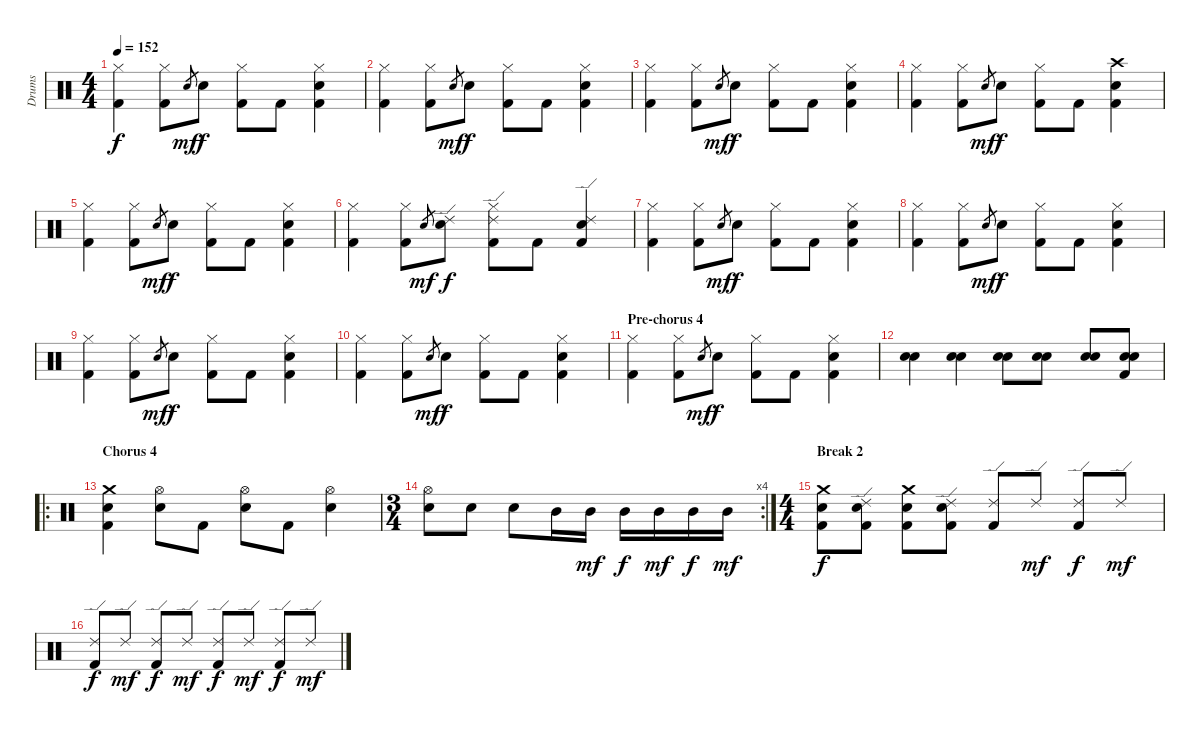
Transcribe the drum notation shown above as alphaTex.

\track ("Drums" "Drums") {instrument percussion}
\staff {score}
\articulation defaults
\ts (4 4)
\tempo 152
\clef neutral
\ks c
("Hi-Hat (closed)" "Kick (hit) 2").4{dy f} ("Hi-Hat (closed)" "Kick (hit) 2").8 "Electric Snare (hit)".8{gr dy mf} "Electric Snare (hit)".8{dy f} ("Hi-Hat (closed)" "Kick (hit) 2").8 "Kick (hit) 2".8 ("Hi-Hat (closed)" "Electric Snare (hit)" "Kick (hit) 2").4 |
("Hi-Hat (closed)" "Kick (hit) 2").4 ("Hi-Hat (closed)" "Kick (hit) 2").8 "Electric Snare (hit)".8{gr dy mf} "Electric Snare (hit)".8{dy f} ("Hi-Hat (closed)" "Kick (hit) 2").8 "Kick (hit) 2".8 ("Hi-Hat (closed)" "Electric Snare (hit)" "Kick (hit) 2").4 |
("Hi-Hat (closed)" "Kick (hit) 2").4 ("Hi-Hat (closed)" "Kick (hit) 2").8 "Electric Snare (hit)".8{gr dy mf} "Electric Snare (hit)".8{dy f} ("Hi-Hat (closed)" "Kick (hit) 2").8 "Kick (hit) 2".8 ("Hi-Hat (closed)" "Electric Snare (hit)" "Kick (hit) 2").4 |
("Hi-Hat (closed)" "Kick (hit) 2").4 ("Hi-Hat (closed)" "Kick (hit) 2").8 "Electric Snare (hit)".8{gr dy mf} "Electric Snare (hit)".8{dy f} ("Hi-Hat (closed)" "Kick (hit) 2").8 "Kick (hit) 2".8 ("Crash high (hit)" "Electric Snare (hit)" "Kick (hit) 2").4 |
("Hi-Hat (closed)" "Kick (hit) 2").4 ("Hi-Hat (closed)" "Kick (hit) 2").8 "Electric Snare (hit)".8{gr dy mf} "Electric Snare (hit)".8{dy f} ("Hi-Hat (closed)" "Kick (hit) 2").8 "Kick (hit) 2".8 ("Hi-Hat (closed)" "Electric Snare (hit)" "Kick (hit) 2").4 |
("Hi-Hat (closed)" "Kick (hit) 2").4 ("Hi-Hat (closed)" "Kick (hit) 2").8 "Electric Snare (hit)".8{gr dy mf} ("Ride (edge) 2" "Electric Snare (hit)").8{dy f} ("Hi-Hat (closed)" "Ride (edge) 2" "Kick (hit) 2").8 "Kick (hit) 2".8 ("Ride (edge) 2" "Electric Snare (hit)" "Kick (hit) 2").4 |
("Hi-Hat (closed)" "Kick (hit) 2").4 ("Hi-Hat (closed)" "Kick (hit) 2").8 "Electric Snare (hit)".8{gr dy mf} "Electric Snare (hit)".8{dy f} ("Hi-Hat (closed)" "Kick (hit) 2").8 "Kick (hit) 2".8 ("Hi-Hat (closed)" "Electric Snare (hit)" "Kick (hit) 2").4 |
("Hi-Hat (closed)" "Kick (hit) 2").4 ("Hi-Hat (closed)" "Kick (hit) 2").8 "Electric Snare (hit)".8{gr dy mf} "Electric Snare (hit)".8{dy f} ("Hi-Hat (closed)" "Kick (hit) 2").8 "Kick (hit) 2".8 ("Hi-Hat (closed)" "Electric Snare (hit)" "Kick (hit) 2").4 |
("Hi-Hat (closed)" "Kick (hit) 2").4 ("Hi-Hat (closed)" "Kick (hit) 2").8 "Electric Snare (hit)".8{gr dy mf} "Electric Snare (hit)".8{dy f} ("Hi-Hat (closed)" "Kick (hit) 2").8 "Kick (hit) 2".8 ("Hi-Hat (closed)" "Electric Snare (hit)" "Kick (hit) 2").4 |
("Hi-Hat (closed)" "Kick (hit) 2").4 ("Hi-Hat (closed)" "Kick (hit) 2").8 "Electric Snare (hit)".8{gr dy mf} "Electric Snare (hit)".8{dy f} ("Hi-Hat (closed)" "Kick (hit) 2").8 "Kick (hit) 2".8 ("Hi-Hat (closed)" "Electric Snare (hit)" "Kick (hit) 2").4 |
\section ("" "Pre-chorus 4")
("Hi-Hat (closed)" "Kick (hit) 2").4 ("Hi-Hat (closed)" "Kick (hit) 2").8 "Electric Snare (hit)".8{gr dy mf} "Electric Snare (hit)".8{dy f} ("Hi-Hat (closed)" "Kick (hit) 2").8 "Kick (hit) 2".8 ("Hi-Hat (closed)" "Electric Snare (hit)" "Kick (hit) 2").4 |
("Snare (hit) 2" "Electric Snare (hit)").4 ("Snare (hit) 2" "Electric Snare (hit)").4 ("Snare (hit) 2" "Electric Snare (hit)").8 ("Snare (hit) 2" "Electric Snare (hit)").8 ("Snare (hit) 2" "Electric Snare (hit)").8 ("Snare (hit) 2" "Electric Snare (hit)" "Kick (hit) 2").8 |
\ro
\section ("" "Chorus 4")
("Crash medium (hit)" "Electric Snare (hit)" "Kick (hit) 2").4 ("Hi-Hat (open)" "Electric Snare (hit)").8 "Kick (hit) 2".8 ("Hi-Hat (open)" "Electric Snare (hit)").8 "Kick (hit) 2".8 ("Hi-Hat (open)" "Electric Snare (hit)").4 |
\rc 4
\ts (3 4)
("Hi-Hat (open)" "Electric Snare (hit)").8 "Electric Snare (hit)".8 "Electric Snare (hit)".8 "Mid Tom (hit)".16 "Mid Tom (hit)".16{dy mf} "Mid Tom (hit)".16{dy f} "Mid Tom (hit)".16{dy mf} "Mid Tom (hit)".16{dy f} "Mid Tom (hit)".16{dy mf} |
\ts (4 4)
\section ("" "Break 2")
("Crash medium (hit)" "Electric Snare (hit)" "Kick (hit) 2").8{dy f} ("Ride (edge) 2" "Electric Snare (hit)" "Kick (hit) 2").8 ("Crash medium (hit)" "Electric Snare (hit)" "Kick (hit) 2").8 ("Ride (edge) 2" "Electric Snare (hit)" "Kick (hit) 2").8 ("Ride (edge) 2" "Kick (hit) 2").8 "Ride (edge) 2".8{dy mf} ("Ride (edge) 2" "Kick (hit) 2").8{dy f} "Ride (edge) 2".8{dy mf} |
("Ride (edge) 2" "Kick (hit) 2").8{dy f} "Ride (edge) 2".8{dy mf} ("Ride (edge) 2" "Kick (hit) 2").8{dy f} "Ride (edge) 2".8{dy mf} ("Ride (edge) 2" "Kick (hit) 2").8{dy f} "Ride (edge) 2".8{dy mf} ("Ride (edge) 2" "Kick (hit) 2").8{dy f} "Ride (edge) 2".8{dy mf}
